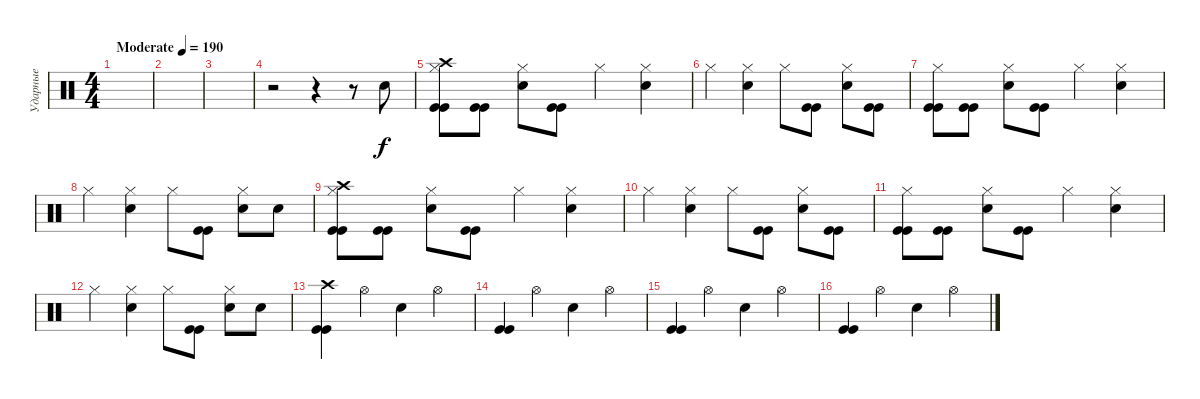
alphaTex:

\track ("Ударные" "Ударные") {instrument percussion}
\staff {score}
\articulation defaults
\ts (4 4)
\tempo (190 "Moderate")
\clef neutral
\ks c
|
|
|
r.2 r.4 r.8 "Electric Snare (hit)".8 |
("Crash high (hit)" "Hi-Hat (closed)" "Kick (hit)" "Kick (hit)").8 ("Kick (hit)" "Kick (hit)").8 ("Hi-Hat (closed)" "Electric Snare (hit)").8 ("Kick (hit)" "Kick (hit)").8 "Hi-Hat (closed)".4 ("Hi-Hat (closed)" "Electric Snare (hit)").4 |
"Hi-Hat (closed)".4 ("Hi-Hat (closed)" "Electric Snare (hit)").4 "Hi-Hat (closed)".8 ("Kick (hit)" "Kick (hit)").8 ("Hi-Hat (closed)" "Electric Snare (hit)").8 ("Kick (hit)" "Kick (hit)").8 |
("Hi-Hat (closed)" "Kick (hit)" "Kick (hit)").8 ("Kick (hit)" "Kick (hit)").8 ("Hi-Hat (closed)" "Electric Snare (hit)").8 ("Kick (hit)" "Kick (hit)").8 "Hi-Hat (closed)".4 ("Hi-Hat (closed)" "Electric Snare (hit)").4 |
"Hi-Hat (closed)".4 ("Hi-Hat (closed)" "Electric Snare (hit)").4 "Hi-Hat (closed)".8 ("Kick (hit)" "Kick (hit)").8 ("Hi-Hat (closed)" "Electric Snare (hit)").8 "Electric Snare (hit)".8 |
("Crash high (hit)" "Hi-Hat (closed)" "Kick (hit)" "Kick (hit)").8 ("Kick (hit)" "Kick (hit)").8 ("Hi-Hat (closed)" "Electric Snare (hit)").8 ("Kick (hit)" "Kick (hit)").8 "Hi-Hat (closed)".4 ("Hi-Hat (closed)" "Electric Snare (hit)").4 |
"Hi-Hat (closed)".4 ("Hi-Hat (closed)" "Electric Snare (hit)").4 "Hi-Hat (closed)".8 ("Kick (hit)" "Kick (hit)").8 ("Hi-Hat (closed)" "Electric Snare (hit)").8 ("Kick (hit)" "Kick (hit)").8 |
("Hi-Hat (closed)" "Kick (hit)" "Kick (hit)").8 ("Kick (hit)" "Kick (hit)").8 ("Hi-Hat (closed)" "Electric Snare (hit)").8 ("Kick (hit)" "Kick (hit)").8 "Hi-Hat (closed)".4 ("Hi-Hat (closed)" "Electric Snare (hit)").4 |
"Hi-Hat (closed)".4 ("Hi-Hat (closed)" "Electric Snare (hit)").4 "Hi-Hat (closed)".8 ("Kick (hit)" "Kick (hit)").8 ("Hi-Hat (closed)" "Electric Snare (hit)").8 "Electric Snare (hit)".8 |
("Crash high (hit)" "Kick (hit)" "Kick (hit)").4 "Hi-Hat (open)".4 "Electric Snare (hit)".4 "Hi-Hat (open)".4 |
("Kick (hit)" "Kick (hit)").4 "Hi-Hat (open)".4 "Electric Snare (hit)".4 "Hi-Hat (open)".4 |
("Kick (hit)" "Kick (hit)").4 "Hi-Hat (open)".4 "Electric Snare (hit)".4 "Hi-Hat (open)".4 |
("Kick (hit)" "Kick (hit)").4 "Hi-Hat (open)".4 "Electric Snare (hit)".4 "Hi-Hat (open)".4
